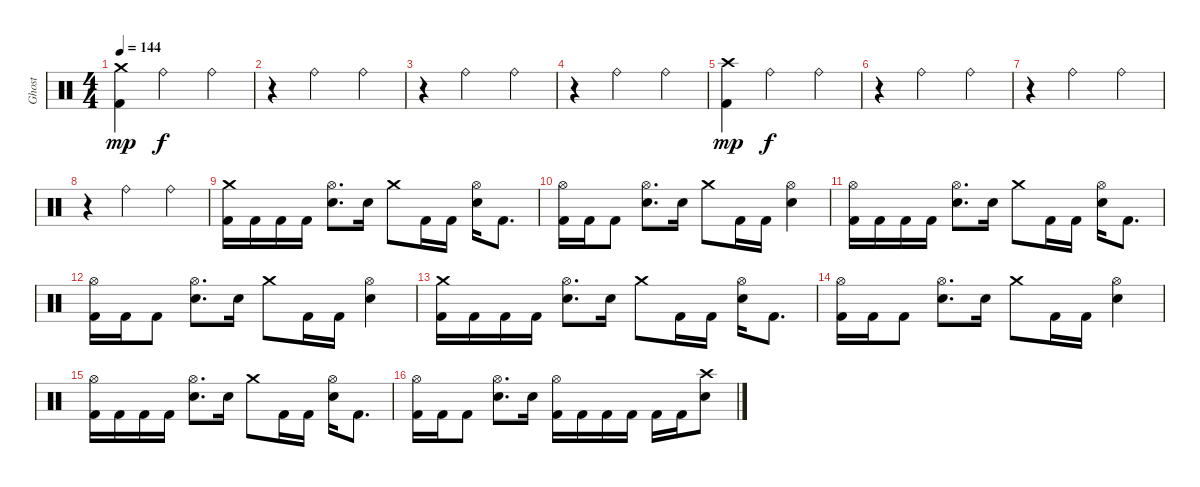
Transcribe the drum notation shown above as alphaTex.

\track ("Ghost" "Ghost") {instrument percussion}
\staff {score}
\articulation defaults
\ts (4 4)
\tempo 144
\clef neutral
\ks c
("Crash medium (hit)" "Kick (hit) 2").4{dy mp} "Ride (bell)".2{dy f} "Ride (bell)".4 |
r.4 "Ride (bell)".2 "Ride (bell)".4 |
r.4 "Ride (bell)".2 "Ride (bell)".4 |
r.4 "Ride (bell)".2 "Ride (bell)".4 |
("Crash high (hit)" "Kick (hit) 2").4{dy mp} "Ride (bell)".2{dy f} "Ride (bell)".4 |
r.4 "Ride (bell)".2 "Ride (bell)".4 |
r.4 "Ride (bell)".2 "Ride (bell)".4 |
r.4 "Ride (bell)".2 "Ride (bell)".4 |
("Crash medium (hit)" "Kick (hit) 2").16 "Kick (hit) 2".16 "Kick (hit) 2".16 "Kick (hit) 2".16 ("Hi-Hat (open)" "Electric Snare (hit)").8{d} "Electric Snare (hit)".16 "Crash medium (hit)".8 "Kick (hit) 2".16 "Kick (hit) 2".16 ("Hi-Hat (open)" "Electric Snare (hit)").16 "Kick (hit) 2".8{d} |
("Hi-Hat (open)" "Kick (hit) 2").16 "Kick (hit) 2".16 "Kick (hit) 2".8 ("Hi-Hat (open)" "Electric Snare (hit)").8{d} "Electric Snare (hit)".16 "Crash medium (hit)".8 "Kick (hit) 2".16 "Kick (hit) 2".16 ("Hi-Hat (open)" "Electric Snare (hit)").4 |
("Hi-Hat (open)" "Kick (hit) 2").16 "Kick (hit) 2".16 "Kick (hit) 2".16 "Kick (hit) 2".16 ("Hi-Hat (open)" "Electric Snare (hit)").8{d} "Electric Snare (hit)".16 "Crash medium (hit)".8 "Kick (hit) 2".16 "Kick (hit) 2".16 ("Hi-Hat (open)" "Electric Snare (hit)").16 "Kick (hit) 2".8{d} |
("Hi-Hat (open)" "Kick (hit) 2").16 "Kick (hit) 2".16 "Kick (hit) 2".8 ("Hi-Hat (open)" "Electric Snare (hit)").8{d} "Electric Snare (hit)".16 "Crash medium (hit)".8 "Kick (hit) 2".16 "Kick (hit) 2".16 ("Hi-Hat (open)" "Electric Snare (hit)").4 |
("Crash medium (hit)" "Kick (hit) 2").16 "Kick (hit) 2".16 "Kick (hit) 2".16 "Kick (hit) 2".16 ("Hi-Hat (open)" "Electric Snare (hit)").8{d} "Electric Snare (hit)".16 "Crash medium (hit)".8 "Kick (hit) 2".16 "Kick (hit) 2".16 ("Hi-Hat (open)" "Electric Snare (hit)").16 "Kick (hit) 2".8{d} |
("Hi-Hat (open)" "Kick (hit) 2").16 "Kick (hit) 2".16 "Kick (hit) 2".8 ("Hi-Hat (open)" "Electric Snare (hit)").8{d} "Electric Snare (hit)".16 "Crash medium (hit)".8 "Kick (hit) 2".16 "Kick (hit) 2".16 ("Hi-Hat (open)" "Electric Snare (hit)").4 |
("Hi-Hat (open)" "Kick (hit) 2").16 "Kick (hit) 2".16 "Kick (hit) 2".16 "Kick (hit) 2".16 ("Hi-Hat (open)" "Electric Snare (hit)").8{d} "Electric Snare (hit)".16 "Crash medium (hit)".8 "Kick (hit) 2".16 "Kick (hit) 2".16 ("Hi-Hat (open)" "Electric Snare (hit)").16 "Kick (hit) 2".8{d} |
("Hi-Hat (open)" "Kick (hit) 2").16 "Kick (hit) 2".16 "Kick (hit) 2".8 ("Hi-Hat (open)" "Electric Snare (hit)").8{d} "Electric Snare (hit)".16 ("Hi-Hat (open)" "Kick (hit) 2").16 "Kick (hit) 2".16 "Kick (hit) 2".16 "Kick (hit) 2".16 "Kick (hit) 2".16 "Kick (hit) 2".16 ("Crash high (hit)" "Electric Snare (hit)").8
